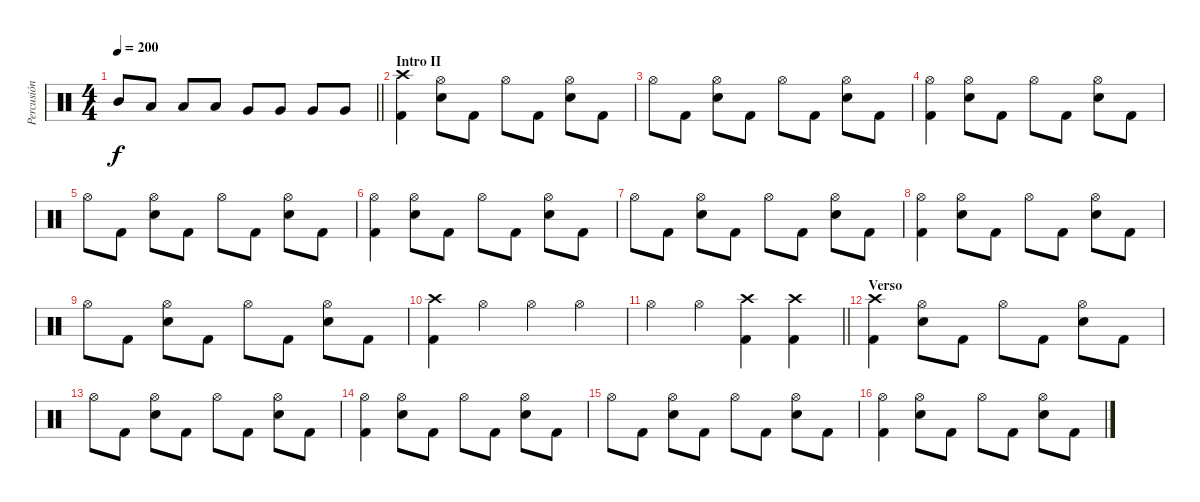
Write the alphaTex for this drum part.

\track ("Percusión" "Percusión") {instrument percussion}
\staff {score}
\articulation defaults
\ts (4 4)
\tempo 200
\clef neutral
\barLineRight lightlight
\ks c "Mid Tom (hit)".8{dy f} "Low Tom (hit)".8 "Low Tom (hit)".8 "Low Tom (hit)".8 "Very Low Tom (hit)".8 "Very Low Tom (hit)".8 "Very Low Tom (hit)".8 "Very Low Tom (hit)".8
|
\section ("" "Intro II")
("Crash high (hit)" "Kick (hit) 2").4 ("Hi-Hat (open)" "Electric Snare (hit)").8 "Kick (hit) 2".8 "Hi-Hat (open)".8 "Kick (hit) 2".8 ("Hi-Hat (open)" "Electric Snare (hit)").8 "Kick (hit) 2".8 |
"Hi-Hat (open)".8 "Kick (hit) 2".8 ("Hi-Hat (open)" "Electric Snare (hit)").8 "Kick (hit) 2".8 "Hi-Hat (open)".8 "Kick (hit) 2".8 ("Hi-Hat (open)" "Electric Snare (hit)").8 "Kick (hit) 2".8 |
("Hi-Hat (open)" "Kick (hit) 2").4 ("Hi-Hat (open)" "Electric Snare (hit)").8 "Kick (hit) 2".8 "Hi-Hat (open)".8 "Kick (hit) 2".8 ("Hi-Hat (open)" "Electric Snare (hit)").8 "Kick (hit) 2".8 |
"Hi-Hat (open)".8 "Kick (hit) 2".8 ("Hi-Hat (open)" "Electric Snare (hit)").8 "Kick (hit) 2".8 "Hi-Hat (open)".8 "Kick (hit) 2".8 ("Hi-Hat (open)" "Electric Snare (hit)").8 "Kick (hit) 2".8 |
("Hi-Hat (open)" "Kick (hit) 2").4 ("Hi-Hat (open)" "Electric Snare (hit)").8 "Kick (hit) 2".8 "Hi-Hat (open)".8 "Kick (hit) 2".8 ("Hi-Hat (open)" "Electric Snare (hit)").8 "Kick (hit) 2".8 |
"Hi-Hat (open)".8 "Kick (hit) 2".8 ("Hi-Hat (open)" "Electric Snare (hit)").8 "Kick (hit) 2".8 "Hi-Hat (open)".8 "Kick (hit) 2".8 ("Hi-Hat (open)" "Electric Snare (hit)").8 "Kick (hit) 2".8 |
("Hi-Hat (open)" "Kick (hit) 2").4 ("Hi-Hat (open)" "Electric Snare (hit)").8 "Kick (hit) 2".8 "Hi-Hat (open)".8 "Kick (hit) 2".8 ("Hi-Hat (open)" "Electric Snare (hit)").8 "Kick (hit) 2".8 |
"Hi-Hat (open)".8 "Kick (hit) 2".8 ("Hi-Hat (open)" "Electric Snare (hit)").8 "Kick (hit) 2".8 "Hi-Hat (open)".8 "Kick (hit) 2".8 ("Hi-Hat (open)" "Electric Snare (hit)").8 "Kick (hit) 2".8 |
("Crash high (hit)" "Kick (hit) 2").4 "Hi-Hat (open)".4 "Hi-Hat (open)".4 "Hi-Hat (open)".4 |
\barLineRight lightlight "Hi-Hat (open)".4 "Hi-Hat (open)".4
("Crash high (hit)" "Kick (hit) 2").4 ("Crash high (hit)" "Kick (hit) 2").4 |
\section ("" "Verso")
("Crash high (hit)" "Kick (hit) 2").4 ("Hi-Hat (open)" "Electric Snare (hit)").8 "Kick (hit) 2".8 "Hi-Hat (open)".8 "Kick (hit) 2".8 ("Hi-Hat (open)" "Electric Snare (hit)").8 "Kick (hit) 2".8 |
"Hi-Hat (open)".8 "Kick (hit) 2".8 ("Hi-Hat (open)" "Electric Snare (hit)").8 "Kick (hit) 2".8 "Hi-Hat (open)".8 "Kick (hit) 2".8 ("Hi-Hat (open)" "Electric Snare (hit)").8 "Kick (hit) 2".8 |
("Hi-Hat (open)" "Kick (hit) 2").4 ("Hi-Hat (open)" "Electric Snare (hit)").8 "Kick (hit) 2".8 "Hi-Hat (open)".8 "Kick (hit) 2".8 ("Hi-Hat (open)" "Electric Snare (hit)").8 "Kick (hit) 2".8 |
"Hi-Hat (open)".8 "Kick (hit) 2".8 ("Hi-Hat (open)" "Electric Snare (hit)").8 "Kick (hit) 2".8 "Hi-Hat (open)".8 "Kick (hit) 2".8 ("Hi-Hat (open)" "Electric Snare (hit)").8 "Kick (hit) 2".8 |
("Hi-Hat (open)" "Kick (hit) 2").4 ("Hi-Hat (open)" "Electric Snare (hit)").8 "Kick (hit) 2".8 "Hi-Hat (open)".8 "Kick (hit) 2".8 ("Hi-Hat (open)" "Electric Snare (hit)").8 "Kick (hit) 2".8
